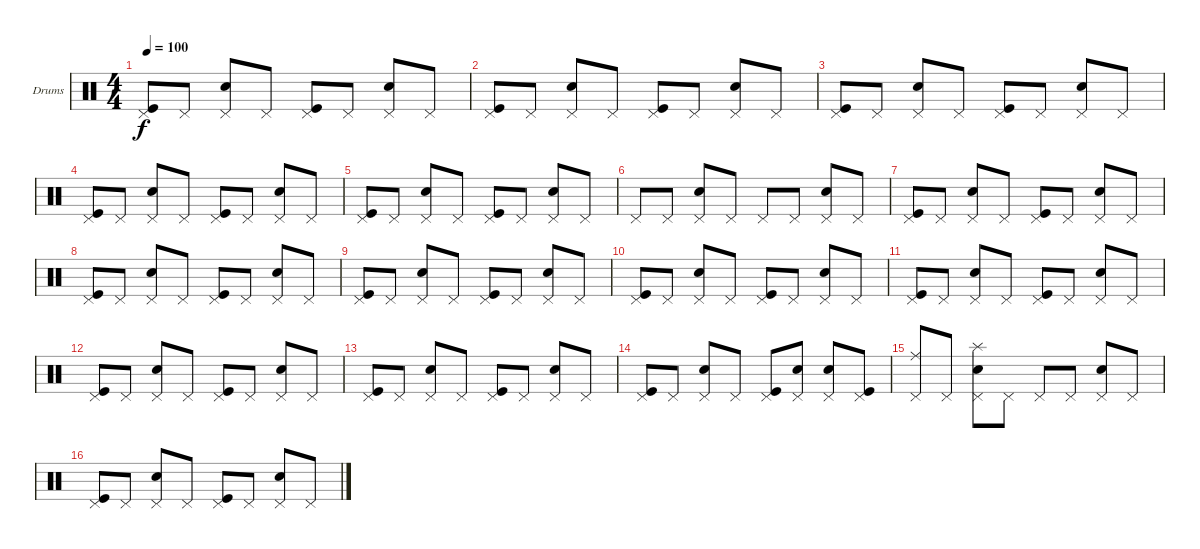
\defaultSystemsLayout 4
\bracketExtendMode groupsimilarinstruments
\firstSystemTrackNameOrientation horizontal
\otherSystemsTrackNameOrientation horizontal
\track ("Drumkit" "Drums") {instrument percussion}
\staff {score}
\articulation defaults
\ts (4 4)
\tempo 100
\clef neutral
\ks c
("Pedal Hi-Hat (hit)" "Kick (hit)").8{dy f} "Pedal Hi-Hat (hit)".8 ("Pedal Hi-Hat (hit)" "Snare (hit) 2").8 "Pedal Hi-Hat (hit)".8 ("Pedal Hi-Hat (hit)" "Kick (hit)").8 "Pedal Hi-Hat (hit)".8 ("Pedal Hi-Hat (hit)" "Snare (hit) 2").8 "Pedal Hi-Hat (hit)".8 |
("Pedal Hi-Hat (hit)" "Kick (hit)").8 "Pedal Hi-Hat (hit)".8 ("Pedal Hi-Hat (hit)" "Snare (hit) 2").8 "Pedal Hi-Hat (hit)".8 ("Pedal Hi-Hat (hit)" "Kick (hit)").8 "Pedal Hi-Hat (hit)".8 ("Pedal Hi-Hat (hit)" "Snare (hit) 2").8 "Pedal Hi-Hat (hit)".8 |
("Pedal Hi-Hat (hit)" "Kick (hit)").8 "Pedal Hi-Hat (hit)".8 ("Pedal Hi-Hat (hit)" "Snare (hit) 2").8 "Pedal Hi-Hat (hit)".8 ("Pedal Hi-Hat (hit)" "Kick (hit)").8 "Pedal Hi-Hat (hit)".8 ("Pedal Hi-Hat (hit)" "Snare (hit) 2").8 "Pedal Hi-Hat (hit)".8 |
("Pedal Hi-Hat (hit)" "Kick (hit)").8 "Pedal Hi-Hat (hit)".8 ("Pedal Hi-Hat (hit)" "Snare (hit) 2").8 "Pedal Hi-Hat (hit)".8 ("Pedal Hi-Hat (hit)" "Kick (hit)").8 "Pedal Hi-Hat (hit)".8 ("Pedal Hi-Hat (hit)" "Snare (hit) 2").8 "Pedal Hi-Hat (hit)".8 |
("Pedal Hi-Hat (hit)" "Kick (hit)").8 "Pedal Hi-Hat (hit)".8 ("Pedal Hi-Hat (hit)" "Snare (hit) 2").8 "Pedal Hi-Hat (hit)".8 ("Pedal Hi-Hat (hit)" "Kick (hit)").8 "Pedal Hi-Hat (hit)".8 ("Pedal Hi-Hat (hit)" "Snare (hit) 2").8 "Pedal Hi-Hat (hit)".8 |
"Pedal Hi-Hat (hit)".8 "Pedal Hi-Hat (hit)".8 ("Pedal Hi-Hat (hit)" "Snare (hit) 2").8 "Pedal Hi-Hat (hit)".8 "Pedal Hi-Hat (hit)".8 "Pedal Hi-Hat (hit)".8 ("Pedal Hi-Hat (hit)" "Snare (hit) 2").8 "Pedal Hi-Hat (hit)".8 |
("Pedal Hi-Hat (hit)" "Kick (hit)").8 "Pedal Hi-Hat (hit)".8 ("Pedal Hi-Hat (hit)" "Snare (hit) 2").8 "Pedal Hi-Hat (hit)".8 ("Pedal Hi-Hat (hit)" "Kick (hit)").8 "Pedal Hi-Hat (hit)".8 ("Pedal Hi-Hat (hit)" "Snare (hit) 2").8 "Pedal Hi-Hat (hit)".8 |
("Pedal Hi-Hat (hit)" "Kick (hit)").8 "Pedal Hi-Hat (hit)".8 ("Pedal Hi-Hat (hit)" "Snare (hit) 2").8 "Pedal Hi-Hat (hit)".8 ("Pedal Hi-Hat (hit)" "Kick (hit)").8 "Pedal Hi-Hat (hit)".8 ("Pedal Hi-Hat (hit)" "Snare (hit) 2").8 "Pedal Hi-Hat (hit)".8 |
("Pedal Hi-Hat (hit)" "Kick (hit)").8 "Pedal Hi-Hat (hit)".8 ("Pedal Hi-Hat (hit)" "Snare (hit) 2").8 "Pedal Hi-Hat (hit)".8 ("Pedal Hi-Hat (hit)" "Kick (hit)").8 "Pedal Hi-Hat (hit)".8 ("Pedal Hi-Hat (hit)" "Snare (hit) 2").8 "Pedal Hi-Hat (hit)".8 |
("Pedal Hi-Hat (hit)" "Kick (hit)").8 "Pedal Hi-Hat (hit)".8 ("Pedal Hi-Hat (hit)" "Snare (hit) 2").8 "Pedal Hi-Hat (hit)".8 ("Pedal Hi-Hat (hit)" "Kick (hit)").8 "Pedal Hi-Hat (hit)".8 ("Pedal Hi-Hat (hit)" "Snare (hit) 2").8 "Pedal Hi-Hat (hit)".8 |
("Pedal Hi-Hat (hit)" "Kick (hit)").8 "Pedal Hi-Hat (hit)".8 ("Pedal Hi-Hat (hit)" "Snare (hit) 2").8 "Pedal Hi-Hat (hit)".8 ("Pedal Hi-Hat (hit)" "Kick (hit)").8 "Pedal Hi-Hat (hit)".8 ("Pedal Hi-Hat (hit)" "Snare (hit) 2").8 "Pedal Hi-Hat (hit)".8 |
("Pedal Hi-Hat (hit)" "Kick (hit)").8 "Pedal Hi-Hat (hit)".8 ("Pedal Hi-Hat (hit)" "Snare (hit) 2").8 "Pedal Hi-Hat (hit)".8 ("Pedal Hi-Hat (hit)" "Kick (hit)").8 "Pedal Hi-Hat (hit)".8 ("Pedal Hi-Hat (hit)" "Snare (hit) 2").8 "Pedal Hi-Hat (hit)".8 |
("Pedal Hi-Hat (hit)" "Kick (hit)").8 "Pedal Hi-Hat (hit)".8 ("Pedal Hi-Hat (hit)" "Snare (hit) 2").8 "Pedal Hi-Hat (hit)".8 ("Pedal Hi-Hat (hit)" "Kick (hit)").8 "Pedal Hi-Hat (hit)".8 ("Pedal Hi-Hat (hit)" "Snare (hit) 2").8 "Pedal Hi-Hat (hit)".8 |
("Pedal Hi-Hat (hit)" "Kick (hit)").8 "Pedal Hi-Hat (hit)".8 ("Pedal Hi-Hat (hit)" "Snare (hit) 2").8 "Pedal Hi-Hat (hit)".8 ("Pedal Hi-Hat (hit)" "Kick (hit)").8 ("Pedal Hi-Hat (hit)" "Snare (hit) 2").8 ("Pedal Hi-Hat (hit)" "Snare (hit) 2").8 ("Pedal Hi-Hat (hit)" "Kick (hit)").8 |
("Pedal Hi-Hat (hit)" "Ride (middle)").8 "Pedal Hi-Hat (hit)".8 ("Pedal Hi-Hat (hit)" "Snare (hit) 2" "Splash (hit)").8 "Pedal Hi-Hat (hit)".8 "Pedal Hi-Hat (hit)".8 "Pedal Hi-Hat (hit)".8 ("Pedal Hi-Hat (hit)" "Snare (hit) 2").8 "Pedal Hi-Hat (hit)".8 |
("Pedal Hi-Hat (hit)" "Kick (hit)").8 "Pedal Hi-Hat (hit)".8 ("Pedal Hi-Hat (hit)" "Snare (hit) 2").8 "Pedal Hi-Hat (hit)".8 ("Pedal Hi-Hat (hit)" "Kick (hit)").8 "Pedal Hi-Hat (hit)".8 ("Pedal Hi-Hat (hit)" "Snare (hit) 2").8 "Pedal Hi-Hat (hit)".8
